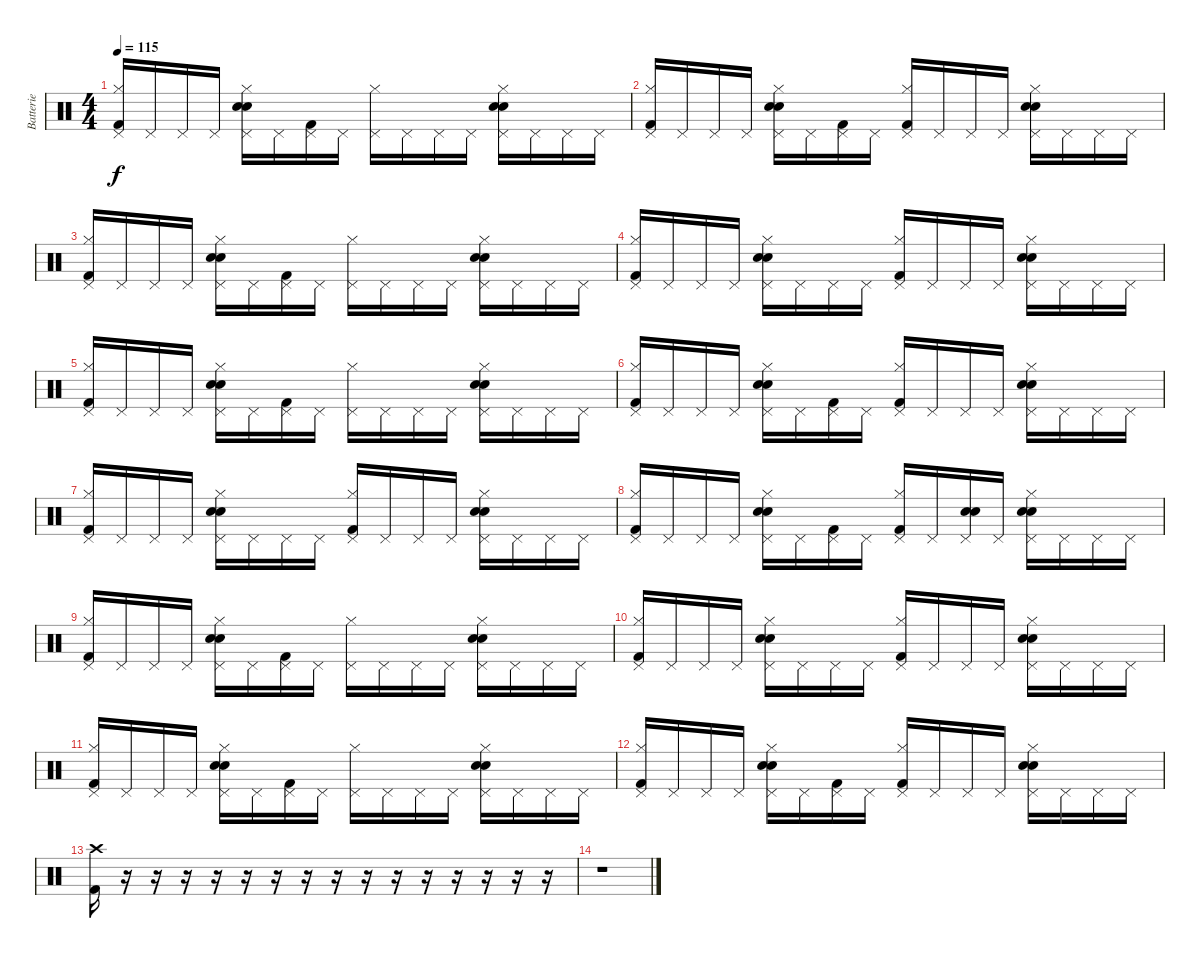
\track ("Batterie" "Batterie") {instrument percussion}
\staff {score}
\articulation defaults
\ts (4 4)
\tempo 115
\clef neutral
\ks c
("Kick (hit) 2" "Hi-Hat (closed)" "Pedal Hi-Hat (hit)").16{dy f} "Pedal Hi-Hat (hit)".16 "Pedal Hi-Hat (hit)".16 "Pedal Hi-Hat (hit)".16 ("Electric Snare (hit)" "Snare (hit) 2" "Hi-Hat (closed)" "Pedal Hi-Hat (hit)").16 "Pedal Hi-Hat (hit)".16 ("Kick (hit) 2" "Pedal Hi-Hat (hit)").16 "Pedal Hi-Hat (hit)".16 ("Hi-Hat (closed)" "Pedal Hi-Hat (hit)").16 "Pedal Hi-Hat (hit)".16 "Pedal Hi-Hat (hit)".16 "Pedal Hi-Hat (hit)".16 ("Electric Snare (hit)" "Snare (hit) 2" "Hi-Hat (closed)" "Pedal Hi-Hat (hit)").16 "Pedal Hi-Hat (hit)".16 "Pedal Hi-Hat (hit)".16 "Pedal Hi-Hat (hit)".16 |
("Kick (hit) 2" "Hi-Hat (closed)" "Pedal Hi-Hat (hit)").16 "Pedal Hi-Hat (hit)".16 "Pedal Hi-Hat (hit)".16 "Pedal Hi-Hat (hit)".16 ("Electric Snare (hit)" "Snare (hit) 2" "Hi-Hat (closed)" "Pedal Hi-Hat (hit)").16 "Pedal Hi-Hat (hit)".16 ("Kick (hit) 2" "Pedal Hi-Hat (hit)").16 "Pedal Hi-Hat (hit)".16 ("Kick (hit) 2" "Hi-Hat (closed)" "Pedal Hi-Hat (hit)").16 "Pedal Hi-Hat (hit)".16 "Pedal Hi-Hat (hit)".16 "Pedal Hi-Hat (hit)".16 ("Electric Snare (hit)" "Snare (hit) 2" "Hi-Hat (closed)" "Pedal Hi-Hat (hit)").16 "Pedal Hi-Hat (hit)".16 "Pedal Hi-Hat (hit)".16 "Pedal Hi-Hat (hit)".16 |
("Kick (hit) 2" "Hi-Hat (closed)" "Pedal Hi-Hat (hit)").16 "Pedal Hi-Hat (hit)".16 "Pedal Hi-Hat (hit)".16 "Pedal Hi-Hat (hit)".16 ("Electric Snare (hit)" "Snare (hit) 2" "Hi-Hat (closed)" "Pedal Hi-Hat (hit)").16 "Pedal Hi-Hat (hit)".16 ("Kick (hit) 2" "Pedal Hi-Hat (hit)").16 "Pedal Hi-Hat (hit)".16 ("Hi-Hat (closed)" "Pedal Hi-Hat (hit)").16 "Pedal Hi-Hat (hit)".16 "Pedal Hi-Hat (hit)".16 "Pedal Hi-Hat (hit)".16 ("Electric Snare (hit)" "Snare (hit) 2" "Hi-Hat (closed)" "Pedal Hi-Hat (hit)").16 "Pedal Hi-Hat (hit)".16 "Pedal Hi-Hat (hit)".16 "Pedal Hi-Hat (hit)".16 |
("Kick (hit) 2" "Hi-Hat (closed)" "Pedal Hi-Hat (hit)").16 "Pedal Hi-Hat (hit)".16 "Pedal Hi-Hat (hit)".16 "Pedal Hi-Hat (hit)".16 ("Electric Snare (hit)" "Snare (hit) 2" "Hi-Hat (closed)" "Pedal Hi-Hat (hit)").16 "Pedal Hi-Hat (hit)".16 "Pedal Hi-Hat (hit)".16 "Pedal Hi-Hat (hit)".16 ("Kick (hit) 2" "Hi-Hat (closed)" "Pedal Hi-Hat (hit)").16 "Pedal Hi-Hat (hit)".16 "Pedal Hi-Hat (hit)".16 "Pedal Hi-Hat (hit)".16 ("Electric Snare (hit)" "Snare (hit) 2" "Hi-Hat (closed)" "Pedal Hi-Hat (hit)").16 "Pedal Hi-Hat (hit)".16 "Pedal Hi-Hat (hit)".16 "Pedal Hi-Hat (hit)".16 |
("Kick (hit) 2" "Hi-Hat (closed)" "Pedal Hi-Hat (hit)").16 "Pedal Hi-Hat (hit)".16 "Pedal Hi-Hat (hit)".16 "Pedal Hi-Hat (hit)".16 ("Electric Snare (hit)" "Snare (hit) 2" "Hi-Hat (closed)" "Pedal Hi-Hat (hit)").16 "Pedal Hi-Hat (hit)".16 ("Kick (hit) 2" "Pedal Hi-Hat (hit)").16 "Pedal Hi-Hat (hit)".16 ("Hi-Hat (closed)" "Pedal Hi-Hat (hit)").16 "Pedal Hi-Hat (hit)".16 "Pedal Hi-Hat (hit)".16 "Pedal Hi-Hat (hit)".16 ("Electric Snare (hit)" "Snare (hit) 2" "Hi-Hat (closed)" "Pedal Hi-Hat (hit)").16 "Pedal Hi-Hat (hit)".16 "Pedal Hi-Hat (hit)".16 "Pedal Hi-Hat (hit)".16 |
("Kick (hit) 2" "Hi-Hat (closed)" "Pedal Hi-Hat (hit)").16 "Pedal Hi-Hat (hit)".16 "Pedal Hi-Hat (hit)".16 "Pedal Hi-Hat (hit)".16 ("Electric Snare (hit)" "Snare (hit) 2" "Hi-Hat (closed)" "Pedal Hi-Hat (hit)").16 "Pedal Hi-Hat (hit)".16 ("Kick (hit) 2" "Pedal Hi-Hat (hit)").16 "Pedal Hi-Hat (hit)".16 ("Kick (hit) 2" "Hi-Hat (closed)" "Pedal Hi-Hat (hit)").16 "Pedal Hi-Hat (hit)".16 "Pedal Hi-Hat (hit)".16 "Pedal Hi-Hat (hit)".16 ("Electric Snare (hit)" "Snare (hit) 2" "Hi-Hat (closed)" "Pedal Hi-Hat (hit)").16 "Pedal Hi-Hat (hit)".16 "Pedal Hi-Hat (hit)".16 "Pedal Hi-Hat (hit)".16 |
("Kick (hit) 2" "Hi-Hat (closed)" "Pedal Hi-Hat (hit)").16 "Pedal Hi-Hat (hit)".16 "Pedal Hi-Hat (hit)".16 "Pedal Hi-Hat (hit)".16 ("Electric Snare (hit)" "Snare (hit) 2" "Hi-Hat (closed)" "Pedal Hi-Hat (hit)").16 "Pedal Hi-Hat (hit)".16 "Pedal Hi-Hat (hit)".16 "Pedal Hi-Hat (hit)".16 ("Kick (hit) 2" "Hi-Hat (closed)" "Pedal Hi-Hat (hit)").16 "Pedal Hi-Hat (hit)".16 "Pedal Hi-Hat (hit)".16 "Pedal Hi-Hat (hit)".16 ("Electric Snare (hit)" "Snare (hit) 2" "Hi-Hat (closed)" "Pedal Hi-Hat (hit)").16 "Pedal Hi-Hat (hit)".16 "Pedal Hi-Hat (hit)".16 "Pedal Hi-Hat (hit)".16 |
("Kick (hit) 2" "Hi-Hat (closed)" "Pedal Hi-Hat (hit)").16 "Pedal Hi-Hat (hit)".16 "Pedal Hi-Hat (hit)".16 "Pedal Hi-Hat (hit)".16 ("Electric Snare (hit)" "Snare (hit) 2" "Hi-Hat (closed)" "Pedal Hi-Hat (hit)").16 "Pedal Hi-Hat (hit)".16 ("Kick (hit) 2" "Pedal Hi-Hat (hit)").16 "Pedal Hi-Hat (hit)".16 ("Kick (hit) 2" "Hi-Hat (closed)" "Pedal Hi-Hat (hit)").16 "Pedal Hi-Hat (hit)".16 ("Electric Snare (hit)" "Snare (hit) 2" "Pedal Hi-Hat (hit)").16 "Pedal Hi-Hat (hit)".16 ("Electric Snare (hit)" "Snare (hit) 2" "Hi-Hat (closed)" "Pedal Hi-Hat (hit)").16 "Pedal Hi-Hat (hit)".16 "Pedal Hi-Hat (hit)".16 "Pedal Hi-Hat (hit)".16 |
("Kick (hit) 2" "Hi-Hat (closed)" "Pedal Hi-Hat (hit)").16 "Pedal Hi-Hat (hit)".16 "Pedal Hi-Hat (hit)".16 "Pedal Hi-Hat (hit)".16 ("Electric Snare (hit)" "Snare (hit) 2" "Hi-Hat (closed)" "Pedal Hi-Hat (hit)").16 "Pedal Hi-Hat (hit)".16 ("Kick (hit) 2" "Pedal Hi-Hat (hit)").16 "Pedal Hi-Hat (hit)".16 ("Hi-Hat (closed)" "Pedal Hi-Hat (hit)").16 "Pedal Hi-Hat (hit)".16 "Pedal Hi-Hat (hit)".16 "Pedal Hi-Hat (hit)".16 ("Electric Snare (hit)" "Snare (hit) 2" "Hi-Hat (closed)" "Pedal Hi-Hat (hit)").16 "Pedal Hi-Hat (hit)".16 "Pedal Hi-Hat (hit)".16 "Pedal Hi-Hat (hit)".16 |
("Kick (hit) 2" "Hi-Hat (closed)" "Pedal Hi-Hat (hit)").16 "Pedal Hi-Hat (hit)".16 "Pedal Hi-Hat (hit)".16 "Pedal Hi-Hat (hit)".16 ("Electric Snare (hit)" "Snare (hit) 2" "Hi-Hat (closed)" "Pedal Hi-Hat (hit)").16 "Pedal Hi-Hat (hit)".16 "Pedal Hi-Hat (hit)".16 "Pedal Hi-Hat (hit)".16 ("Kick (hit) 2" "Hi-Hat (closed)" "Pedal Hi-Hat (hit)").16 "Pedal Hi-Hat (hit)".16 "Pedal Hi-Hat (hit)".16 "Pedal Hi-Hat (hit)".16 ("Electric Snare (hit)" "Snare (hit) 2" "Hi-Hat (closed)" "Pedal Hi-Hat (hit)").16 "Pedal Hi-Hat (hit)".16 "Pedal Hi-Hat (hit)".16 "Pedal Hi-Hat (hit)".16 |
("Kick (hit) 2" "Hi-Hat (closed)" "Pedal Hi-Hat (hit)").16 "Pedal Hi-Hat (hit)".16 "Pedal Hi-Hat (hit)".16 "Pedal Hi-Hat (hit)".16 ("Electric Snare (hit)" "Snare (hit) 2" "Hi-Hat (closed)" "Pedal Hi-Hat (hit)").16 "Pedal Hi-Hat (hit)".16 ("Kick (hit) 2" "Pedal Hi-Hat (hit)").16 "Pedal Hi-Hat (hit)".16 ("Hi-Hat (closed)" "Pedal Hi-Hat (hit)").16 "Pedal Hi-Hat (hit)".16 "Pedal Hi-Hat (hit)".16 "Pedal Hi-Hat (hit)".16 ("Electric Snare (hit)" "Snare (hit) 2" "Hi-Hat (closed)" "Pedal Hi-Hat (hit)").16 "Pedal Hi-Hat (hit)".16 "Pedal Hi-Hat (hit)".16 "Pedal Hi-Hat (hit)".16 |
("Kick (hit) 2" "Hi-Hat (closed)" "Pedal Hi-Hat (hit)").16 "Pedal Hi-Hat (hit)".16 "Pedal Hi-Hat (hit)".16 "Pedal Hi-Hat (hit)".16 ("Electric Snare (hit)" "Snare (hit) 2" "Hi-Hat (closed)" "Pedal Hi-Hat (hit)").16 "Pedal Hi-Hat (hit)".16 ("Kick (hit) 2" "Pedal Hi-Hat (hit)").16 "Pedal Hi-Hat (hit)".16 ("Kick (hit) 2" "Hi-Hat (closed)" "Pedal Hi-Hat (hit)").16 "Pedal Hi-Hat (hit)".16 "Pedal Hi-Hat (hit)".16 "Pedal Hi-Hat (hit)".16 ("Electric Snare (hit)" "Snare (hit) 2" "Hi-Hat (closed)" "Pedal Hi-Hat (hit)").16 "Pedal Hi-Hat (hit)".16 "Pedal Hi-Hat (hit)".16 "Pedal Hi-Hat (hit)".16 |
("Kick (hit) 2" "Crash high (hit)").16 r.16 r.16 r.16 r.16 r.16 r.16 r.16 r.16 r.16 r.16 r.16 r.16 r.16 r.16 r.16 |
r.1
